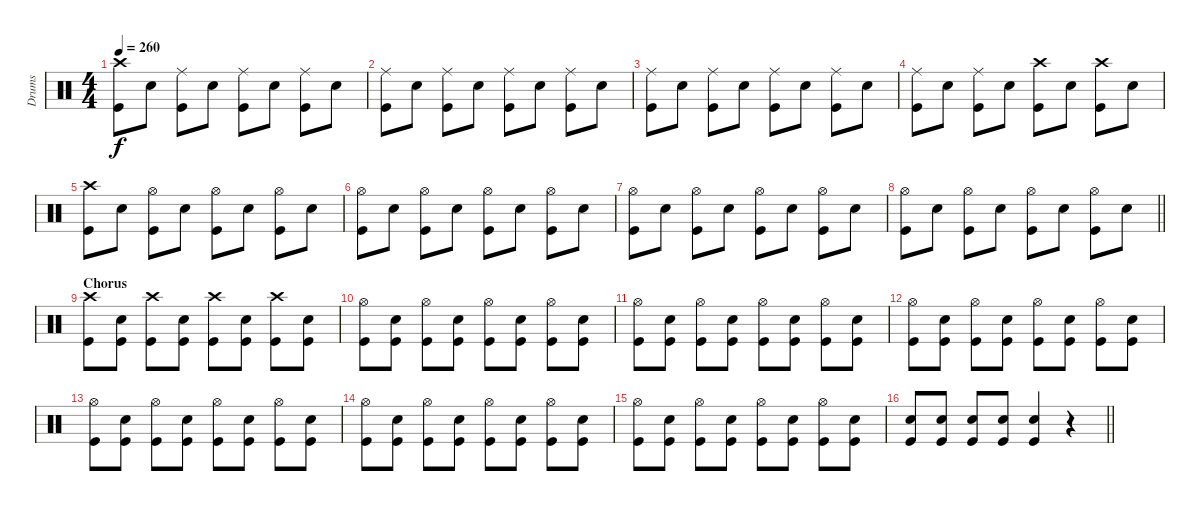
\track ("Drums" "Drums") {instrument percussion}
\staff {score}
\articulation defaults
\ts (4 4)
\tempo 260
\clef neutral
\ks c
("Kick (hit)" "Crash high (hit)").8{dy f} "Snare (hit) 2".8 ("Kick (hit)" "Ride (middle)").8 "Snare (hit) 2".8 ("Kick (hit)" "Ride (middle)").8 "Snare (hit) 2".8 ("Kick (hit)" "Ride (middle)").8 "Snare (hit) 2".8 |
("Kick (hit)" "Ride (middle)").8 "Snare (hit) 2".8 ("Kick (hit)" "Ride (middle)").8 "Snare (hit) 2".8 ("Kick (hit)" "Ride (middle)").8 "Snare (hit) 2".8 ("Kick (hit)" "Ride (middle)").8 "Snare (hit) 2".8 |
("Kick (hit)" "Ride (middle)").8 "Snare (hit) 2".8 ("Kick (hit)" "Ride (middle)").8 "Snare (hit) 2".8 ("Kick (hit)" "Ride (middle)").8 "Snare (hit) 2".8 ("Kick (hit)" "Ride (middle)").8 "Snare (hit) 2".8 |
("Kick (hit)" "Ride (middle)").8 "Snare (hit) 2".8 ("Kick (hit)" "Ride (middle)").8 "Snare (hit) 2".8 ("Kick (hit)" "Crash high (hit)").8 "Snare (hit) 2".8 ("Kick (hit)" "Crash high (hit)").8 "Snare (hit) 2".8 |
("Kick (hit)" "Crash high (hit)").8 "Snare (hit) 2".8 ("Kick (hit)" "Hi-Hat (open)").8 "Snare (hit) 2".8 ("Kick (hit)" "Hi-Hat (open)").8 "Snare (hit) 2".8 ("Kick (hit)" "Hi-Hat (open)").8 "Snare (hit) 2".8 |
("Kick (hit)" "Hi-Hat (open)").8 "Snare (hit) 2".8 ("Kick (hit)" "Hi-Hat (open)").8 "Snare (hit) 2".8 ("Kick (hit)" "Hi-Hat (open)").8 "Snare (hit) 2".8 ("Kick (hit)" "Hi-Hat (open)").8 "Snare (hit) 2".8 |
("Kick (hit)" "Hi-Hat (open)").8 "Snare (hit) 2".8 ("Kick (hit)" "Hi-Hat (open)").8 "Snare (hit) 2".8 ("Kick (hit)" "Hi-Hat (open)").8 "Snare (hit) 2".8 ("Kick (hit)" "Hi-Hat (open)").8 "Snare (hit) 2".8 |
\barLineRight lightlight
("Kick (hit)" "Hi-Hat (open)").8 "Snare (hit) 2".8 ("Kick (hit)" "Hi-Hat (open)").8 "Snare (hit) 2".8 ("Kick (hit)" "Hi-Hat (open)").8 "Snare (hit) 2".8 ("Kick (hit)" "Hi-Hat (open)").8 "Snare (hit) 2".8 |
\section ("" "Chorus")
("Kick (hit)" "Crash high (hit)").8 ("Snare (hit) 2" "Kick (hit)").8 ("Kick (hit)" "Crash high (hit)").8 ("Snare (hit) 2" "Kick (hit)").8 ("Kick (hit)" "Crash high (hit)").8 ("Snare (hit) 2" "Kick (hit)").8 ("Kick (hit)" "Crash high (hit)").8 ("Snare (hit) 2" "Kick (hit)").8 |
("Kick (hit)" "Hi-Hat (open)").8 ("Snare (hit) 2" "Kick (hit)").8 ("Kick (hit)" "Hi-Hat (open)").8 ("Snare (hit) 2" "Kick (hit)").8 ("Kick (hit)" "Hi-Hat (open)").8 ("Snare (hit) 2" "Kick (hit)").8 ("Hi-Hat (open)" "Kick (hit)").8 ("Snare (hit) 2" "Kick (hit)").8 |
("Kick (hit)" "Hi-Hat (open)").8 ("Snare (hit) 2" "Kick (hit)").8 ("Kick (hit)" "Hi-Hat (open)").8 ("Snare (hit) 2" "Kick (hit)").8 ("Kick (hit)" "Hi-Hat (open)").8 ("Snare (hit) 2" "Kick (hit)").8 ("Hi-Hat (open)" "Kick (hit)").8 ("Snare (hit) 2" "Kick (hit)").8 |
("Kick (hit)" "Hi-Hat (open)").8 ("Snare (hit) 2" "Kick (hit)").8 ("Kick (hit)" "Hi-Hat (open)").8 ("Snare (hit) 2" "Kick (hit)").8 ("Kick (hit)" "Hi-Hat (open)").8 ("Snare (hit) 2" "Kick (hit)").8 ("Hi-Hat (open)" "Kick (hit)").8 ("Snare (hit) 2" "Kick (hit)").8 |
("Kick (hit)" "Hi-Hat (open)").8 ("Snare (hit) 2" "Kick (hit)").8 ("Kick (hit)" "Hi-Hat (open)").8 ("Snare (hit) 2" "Kick (hit)").8 ("Kick (hit)" "Hi-Hat (open)").8 ("Snare (hit) 2" "Kick (hit)").8 ("Hi-Hat (open)" "Kick (hit)").8 ("Snare (hit) 2" "Kick (hit)").8 |
("Kick (hit)" "Hi-Hat (open)").8 ("Snare (hit) 2" "Kick (hit)").8 ("Kick (hit)" "Hi-Hat (open)").8 ("Snare (hit) 2" "Kick (hit)").8 ("Kick (hit)" "Hi-Hat (open)").8 ("Snare (hit) 2" "Kick (hit)").8 ("Hi-Hat (open)" "Kick (hit)").8 ("Snare (hit) 2" "Kick (hit)").8 |
("Kick (hit)" "Hi-Hat (open)").8 ("Snare (hit) 2" "Kick (hit)").8 ("Kick (hit)" "Hi-Hat (open)").8 ("Snare (hit) 2" "Kick (hit)").8 ("Kick (hit)" "Hi-Hat (open)").8 ("Snare (hit) 2" "Kick (hit)").8 ("Hi-Hat (open)" "Kick (hit)").8 ("Snare (hit) 2" "Kick (hit)").8 |
\barLineRight lightlight
("Snare (hit) 2" "Kick (hit)").8 ("Snare (hit) 2" "Kick (hit)").8 ("Snare (hit) 2" "Kick (hit)").8 ("Snare (hit) 2" "Kick (hit)").8 ("Snare (hit) 2" "Kick (hit)").4 r.4
